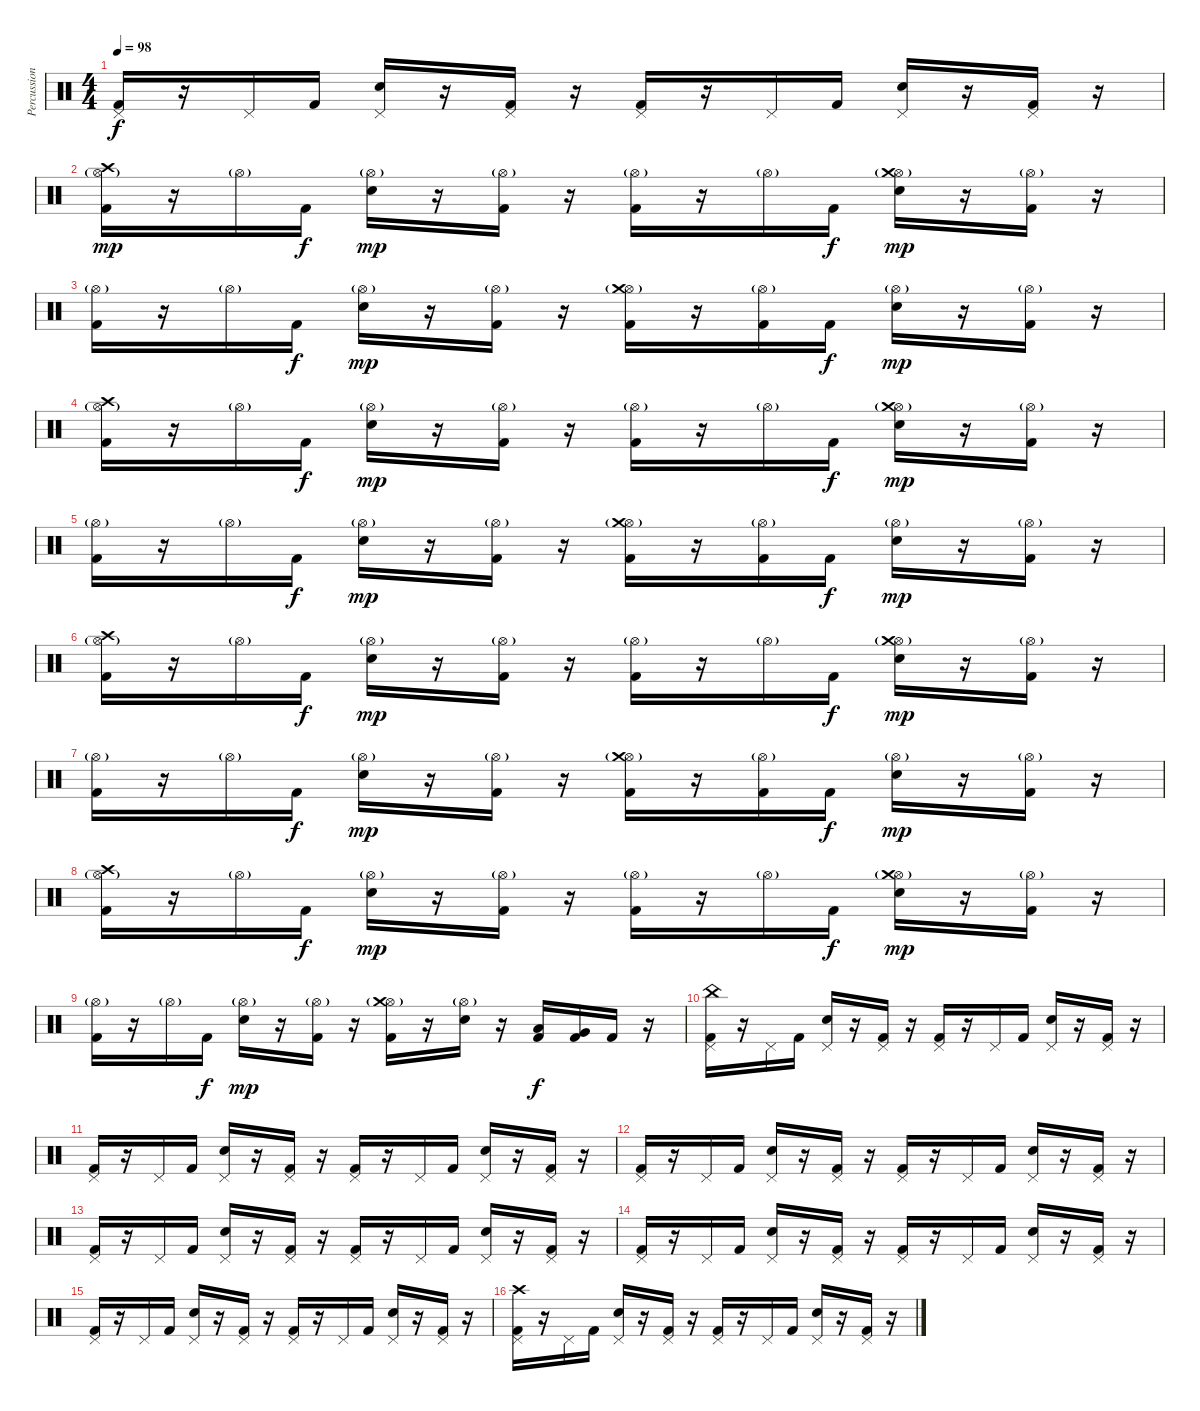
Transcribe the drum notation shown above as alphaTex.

\track ("Percussions" "Percussion") {instrument percussion}
\staff {score}
\articulation defaults
\ts (4 4)
\tempo 98
\clef neutral
\ks c
("Pedal Hi-Hat (hit)" "Kick (hit) 2").16{dy f} r.16 "Pedal Hi-Hat (hit)".16 "Kick (hit) 2".16 ("Pedal Hi-Hat (hit)" "Snare (hit) 2").16 r.16 ("Pedal Hi-Hat (hit)" "Kick (hit) 2").16 r.16 ("Pedal Hi-Hat (hit)" "Kick (hit) 2").16 r.16 "Pedal Hi-Hat (hit)".16 "Kick (hit) 2".16 ("Pedal Hi-Hat (hit)" "Snare (hit) 2").16 r.16 ("Pedal Hi-Hat (hit)" "Kick (hit) 2").16 r.16 |
("Hi-Hat (open)"{g} "Crash high (hit)" "Kick (hit) 2").16{dy mp} r.16 "Hi-Hat (open)"{g}.16 "Kick (hit) 2".16{dy f} ("Hi-Hat (open)"{g} "Snare (hit) 2").16{dy mp} r.16 ("Hi-Hat (open)"{g} "Kick (hit) 2").16 r.16 ("Hi-Hat (open)"{g} "Kick (hit) 2").16 r.16 "Hi-Hat (open)"{g}.16 "Kick (hit) 2".16{dy f} ("Hi-Hat (open)"{g} "Crash medium (hit)" "Snare (hit) 2").16{dy mp} r.16 ("Hi-Hat (open)"{g} "Kick (hit) 2").16 r.16 |
("Hi-Hat (open)"{g} "Kick (hit) 2").16 r.16 "Hi-Hat (open)"{g}.16 "Kick (hit) 2".16{dy f} ("Hi-Hat (open)"{g} "Snare (hit) 2").16{dy mp} r.16 ("Hi-Hat (open)"{g} "Kick (hit) 2").16 r.16 ("Hi-Hat (open)"{g} "Crash medium (hit)" "Kick (hit) 2").16 r.16 ("Hi-Hat (open)"{g} "Kick (hit) 2").16 "Kick (hit) 2".16{dy f} ("Hi-Hat (open)"{g} "Snare (hit) 2").16{dy mp} r.16 ("Hi-Hat (open)"{g} "Kick (hit) 2").16 r.16 |
("Hi-Hat (open)"{g} "Crash high (hit)" "Kick (hit) 2").16 r.16 "Hi-Hat (open)"{g}.16 "Kick (hit) 2".16{dy f} ("Hi-Hat (open)"{g} "Snare (hit) 2").16{dy mp} r.16 ("Hi-Hat (open)"{g} "Kick (hit) 2").16 r.16 ("Hi-Hat (open)"{g} "Kick (hit) 2").16 r.16 "Hi-Hat (open)"{g}.16 "Kick (hit) 2".16{dy f} ("Hi-Hat (open)"{g} "Crash medium (hit)" "Snare (hit) 2").16{dy mp} r.16 ("Hi-Hat (open)"{g} "Kick (hit) 2").16 r.16 |
("Hi-Hat (open)"{g} "Kick (hit) 2").16 r.16 "Hi-Hat (open)"{g}.16 "Kick (hit) 2".16{dy f} ("Hi-Hat (open)"{g} "Snare (hit) 2").16{dy mp} r.16 ("Hi-Hat (open)"{g} "Kick (hit) 2").16 r.16 ("Hi-Hat (open)"{g} "Crash medium (hit)" "Kick (hit) 2").16 r.16 ("Hi-Hat (open)"{g} "Kick (hit) 2").16 "Kick (hit) 2".16{dy f} ("Hi-Hat (open)"{g} "Snare (hit) 2").16{dy mp} r.16 ("Hi-Hat (open)"{g} "Kick (hit) 2").16 r.16 |
("Hi-Hat (open)"{g} "Crash high (hit)" "Kick (hit) 2").16 r.16 "Hi-Hat (open)"{g}.16 "Kick (hit) 2".16{dy f} ("Hi-Hat (open)"{g} "Snare (hit) 2").16{dy mp} r.16 ("Hi-Hat (open)"{g} "Kick (hit) 2").16 r.16 ("Hi-Hat (open)"{g} "Kick (hit) 2").16 r.16 "Hi-Hat (open)"{g}.16 "Kick (hit) 2".16{dy f} ("Hi-Hat (open)"{g} "Crash medium (hit)" "Snare (hit) 2").16{dy mp} r.16 ("Hi-Hat (open)"{g} "Kick (hit) 2").16 r.16 |
("Hi-Hat (open)"{g} "Kick (hit) 2").16 r.16 "Hi-Hat (open)"{g}.16 "Kick (hit) 2".16{dy f} ("Hi-Hat (open)"{g} "Snare (hit) 2").16{dy mp} r.16 ("Hi-Hat (open)"{g} "Kick (hit) 2").16 r.16 ("Hi-Hat (open)"{g} "Crash medium (hit)" "Kick (hit) 2").16 r.16 ("Hi-Hat (open)"{g} "Kick (hit) 2").16 "Kick (hit) 2".16{dy f} ("Hi-Hat (open)"{g} "Snare (hit) 2").16{dy mp} r.16 ("Hi-Hat (open)"{g} "Kick (hit) 2").16 r.16 |
("Hi-Hat (open)"{g} "Crash high (hit)" "Kick (hit) 2").16 r.16 "Hi-Hat (open)"{g}.16 "Kick (hit) 2".16{dy f} ("Hi-Hat (open)"{g} "Snare (hit) 2").16{dy mp} r.16 ("Hi-Hat (open)"{g} "Kick (hit) 2").16 r.16 ("Hi-Hat (open)"{g} "Kick (hit) 2").16 r.16 "Hi-Hat (open)"{g}.16 "Kick (hit) 2".16{dy f} ("Hi-Hat (open)"{g} "Crash medium (hit)" "Snare (hit) 2").16{dy mp} r.16 ("Hi-Hat (open)"{g} "Kick (hit) 2").16 r.16 |
("Hi-Hat (open)"{g} "Kick (hit) 2").16 r.16 "Hi-Hat (open)"{g}.16 "Kick (hit) 2".16{dy f} ("Hi-Hat (open)"{g} "Snare (hit) 2").16{dy mp} r.16 ("Hi-Hat (open)"{g} "Kick (hit) 2").16 r.16 ("Hi-Hat (open)"{g} "Crash medium (hit)" "Kick (hit) 2").16 r.16 ("Hi-Hat (open)"{g} "Snare (hit) 2").16 r.16 ("Low Tom (hit)" "Kick (hit) 2").16{dy f} ("Very Low Tom (hit)" "Kick (hit) 2").16 "Kick (hit) 2".16 r.16 |
("Pedal Hi-Hat (hit)" "China (hit)" "Kick (hit) 2").16 r.16 "Pedal Hi-Hat (hit)".16 "Kick (hit) 2".16 ("Pedal Hi-Hat (hit)" "Snare (hit) 2").16 r.16 ("Pedal Hi-Hat (hit)" "Kick (hit) 2").16 r.16 ("Pedal Hi-Hat (hit)" "Kick (hit) 2").16 r.16 "Pedal Hi-Hat (hit)".16 "Kick (hit) 2".16 ("Pedal Hi-Hat (hit)" "Snare (hit) 2").16 r.16 ("Pedal Hi-Hat (hit)" "Kick (hit) 2").16 r.16 |
("Pedal Hi-Hat (hit)" "Kick (hit) 2").16 r.16 "Pedal Hi-Hat (hit)".16 "Kick (hit) 2".16 ("Pedal Hi-Hat (hit)" "Snare (hit) 2").16 r.16 ("Pedal Hi-Hat (hit)" "Kick (hit) 2").16 r.16 ("Pedal Hi-Hat (hit)" "Kick (hit) 2").16 r.16 "Pedal Hi-Hat (hit)".16 "Kick (hit) 2".16 ("Pedal Hi-Hat (hit)" "Snare (hit) 2").16 r.16 ("Pedal Hi-Hat (hit)" "Kick (hit) 2").16 r.16 |
("Pedal Hi-Hat (hit)" "Kick (hit) 2").16 r.16 "Pedal Hi-Hat (hit)".16 "Kick (hit) 2".16 ("Pedal Hi-Hat (hit)" "Snare (hit) 2").16 r.16 ("Pedal Hi-Hat (hit)" "Kick (hit) 2").16 r.16 ("Pedal Hi-Hat (hit)" "Kick (hit) 2").16 r.16 "Pedal Hi-Hat (hit)".16 "Kick (hit) 2".16 ("Pedal Hi-Hat (hit)" "Snare (hit) 2").16 r.16 ("Pedal Hi-Hat (hit)" "Kick (hit) 2").16 r.16 |
("Pedal Hi-Hat (hit)" "Kick (hit) 2").16 r.16 "Pedal Hi-Hat (hit)".16 "Kick (hit) 2".16 ("Pedal Hi-Hat (hit)" "Snare (hit) 2").16 r.16 ("Pedal Hi-Hat (hit)" "Kick (hit) 2").16 r.16 ("Pedal Hi-Hat (hit)" "Kick (hit) 2").16 r.16 "Pedal Hi-Hat (hit)".16 "Kick (hit) 2".16 ("Pedal Hi-Hat (hit)" "Snare (hit) 2").16 r.16 ("Pedal Hi-Hat (hit)" "Kick (hit) 2").16 r.16 |
("Pedal Hi-Hat (hit)" "Kick (hit) 2").16 r.16 "Pedal Hi-Hat (hit)".16 "Kick (hit) 2".16 ("Pedal Hi-Hat (hit)" "Snare (hit) 2").16 r.16 ("Pedal Hi-Hat (hit)" "Kick (hit) 2").16 r.16 ("Pedal Hi-Hat (hit)" "Kick (hit) 2").16 r.16 "Pedal Hi-Hat (hit)".16 "Kick (hit) 2".16 ("Pedal Hi-Hat (hit)" "Snare (hit) 2").16 r.16 ("Pedal Hi-Hat (hit)" "Kick (hit) 2").16 r.16 |
("Pedal Hi-Hat (hit)" "Kick (hit) 2").16 r.16 "Pedal Hi-Hat (hit)".16 "Kick (hit) 2".16 ("Pedal Hi-Hat (hit)" "Snare (hit) 2").16 r.16 ("Pedal Hi-Hat (hit)" "Kick (hit) 2").16 r.16 ("Pedal Hi-Hat (hit)" "Kick (hit) 2").16 r.16 "Pedal Hi-Hat (hit)".16 "Kick (hit) 2".16 ("Pedal Hi-Hat (hit)" "Snare (hit) 2").16 r.16 ("Pedal Hi-Hat (hit)" "Kick (hit) 2").16 r.16 |
("Pedal Hi-Hat (hit)" "Crash high (hit)" "Kick (hit) 2").16 r.16 "Pedal Hi-Hat (hit)".16 "Kick (hit) 2".16 ("Pedal Hi-Hat (hit)" "Snare (hit) 2").16 r.16 ("Pedal Hi-Hat (hit)" "Kick (hit) 2").16 r.16 ("Pedal Hi-Hat (hit)" "Kick (hit) 2").16 r.16 "Pedal Hi-Hat (hit)".16 "Kick (hit) 2".16 ("Pedal Hi-Hat (hit)" "Snare (hit) 2").16 r.16 ("Pedal Hi-Hat (hit)" "Kick (hit) 2").16 r.16
